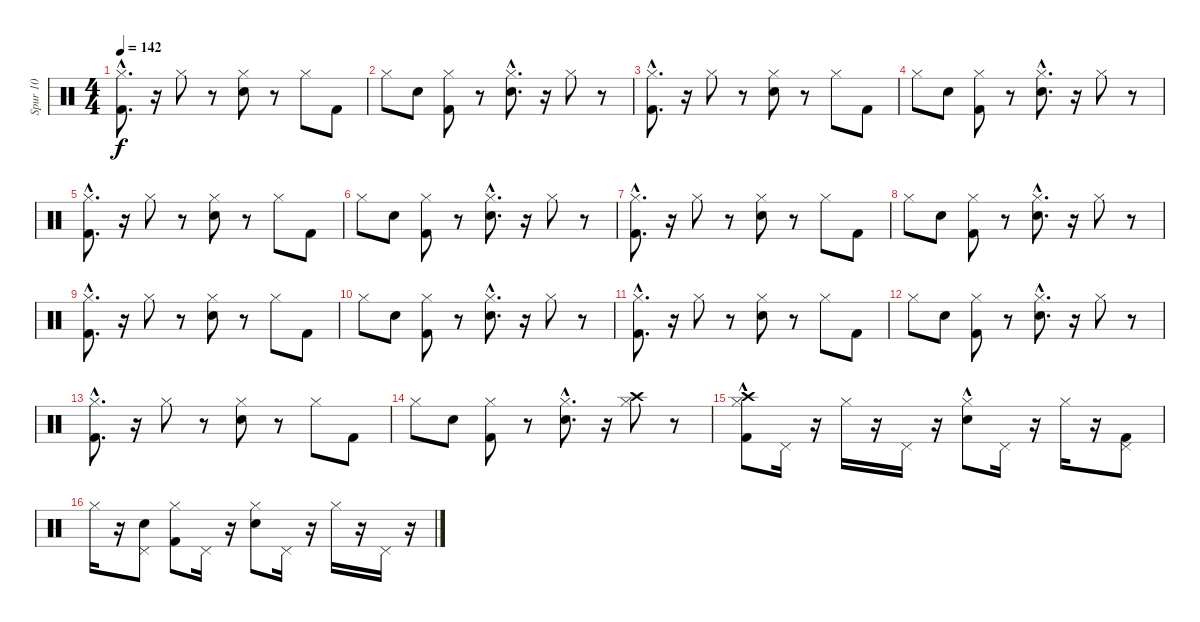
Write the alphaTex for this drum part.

\track ("Spur 10" "Spur 10") {instrument percussion}
\staff {score}
\articulation defaults
\ts (4 4)
\tempo 142
\clef neutral
\ks c
("Kick (hit) 2"{hac} "Hi-Hat (closed)").8{d dy f} r.16 "Hi-Hat (closed)".8 r.8 ("Snare (hit) 2" "Hi-Hat (closed)").8 r.8 "Hi-Hat (closed)".8 "Kick (hit) 2".8 |
"Hi-Hat (closed)".8 "Snare (hit) 2".8 ("Kick (hit) 2" "Hi-Hat (closed)").8 r.8 ("Snare (hit) 2"{hac} "Hi-Hat (closed)").8{d} r.16 "Hi-Hat (closed)".8 r.8 |
("Kick (hit) 2"{hac} "Hi-Hat (closed)").8{d} r.16 "Hi-Hat (closed)".8 r.8 ("Snare (hit) 2" "Hi-Hat (closed)").8 r.8 "Hi-Hat (closed)".8 "Kick (hit) 2".8 |
"Hi-Hat (closed)".8 "Snare (hit) 2".8 ("Kick (hit) 2" "Hi-Hat (closed)").8 r.8 ("Snare (hit) 2"{hac} "Hi-Hat (closed)").8{d} r.16 "Hi-Hat (closed)".8 r.8 |
("Kick (hit) 2"{hac} "Hi-Hat (closed)").8{d} r.16 "Hi-Hat (closed)".8 r.8 ("Snare (hit) 2" "Hi-Hat (closed)").8 r.8 "Hi-Hat (closed)".8 "Kick (hit) 2".8 |
"Hi-Hat (closed)".8 "Snare (hit) 2".8 ("Kick (hit) 2" "Hi-Hat (closed)").8 r.8 ("Snare (hit) 2"{hac} "Hi-Hat (closed)").8{d} r.16 "Hi-Hat (closed)".8 r.8 |
("Kick (hit) 2"{hac} "Hi-Hat (closed)").8{d} r.16 "Hi-Hat (closed)".8 r.8 ("Snare (hit) 2" "Hi-Hat (closed)").8 r.8 "Hi-Hat (closed)".8 "Kick (hit) 2".8 |
"Hi-Hat (closed)".8 "Snare (hit) 2".8 ("Kick (hit) 2" "Hi-Hat (closed)").8 r.8 ("Snare (hit) 2"{hac} "Hi-Hat (closed)").8{d} r.16 "Hi-Hat (closed)".8 r.8 |
("Kick (hit) 2"{hac} "Hi-Hat (closed)").8{d} r.16 "Hi-Hat (closed)".8 r.8 ("Snare (hit) 2" "Hi-Hat (closed)").8 r.8 "Hi-Hat (closed)".8 "Kick (hit) 2".8 |
"Hi-Hat (closed)".8 "Snare (hit) 2".8 ("Kick (hit) 2" "Hi-Hat (closed)").8 r.8 ("Snare (hit) 2"{hac} "Hi-Hat (closed)").8{d} r.16 "Hi-Hat (closed)".8 r.8 |
("Kick (hit) 2"{hac} "Hi-Hat (closed)").8{d} r.16 "Hi-Hat (closed)".8 r.8 ("Snare (hit) 2" "Hi-Hat (closed)").8 r.8 "Hi-Hat (closed)".8 "Kick (hit) 2".8 |
"Hi-Hat (closed)".8 "Snare (hit) 2".8 ("Kick (hit) 2" "Hi-Hat (closed)").8 r.8 ("Snare (hit) 2"{hac} "Hi-Hat (closed)").8{d} r.16 "Hi-Hat (closed)".8 r.8 |
("Kick (hit) 2"{hac} "Hi-Hat (closed)").8{d} r.16 "Hi-Hat (closed)".8 r.8 ("Snare (hit) 2" "Hi-Hat (closed)").8 r.8 "Hi-Hat (closed)".8 "Kick (hit) 2".8 |
"Hi-Hat (closed)".8 "Snare (hit) 2".8 ("Kick (hit) 2" "Hi-Hat (closed)").8 r.8 ("Snare (hit) 2"{hac} "Hi-Hat (closed)").8{d} r.16 ("Hi-Hat (closed)" "Crash high (hit)").8 r.8 |
("Crash high (hit)"{hac} "Kick (hit) 2" "Hi-Hat (closed)").8 "Pedal Hi-Hat (hit)".16 r.16 "Hi-Hat (closed)".16 r.16 "Pedal Hi-Hat (hit)".16 r.16 ("Snare (hit) 2"{hac} "Hi-Hat (closed)").8 "Pedal Hi-Hat (hit)".16 r.16 "Hi-Hat (closed)".16 r.16 ("Kick (hit) 2" "Pedal Hi-Hat (hit)").8 |
"Hi-Hat (closed)".16 r.16 ("Snare (hit) 2" "Pedal Hi-Hat (hit)").8 ("Kick (hit) 2" "Hi-Hat (closed)").8 "Pedal Hi-Hat (hit)".16 r.16 ("Snare (hit) 2" "Hi-Hat (closed)").8 "Pedal Hi-Hat (hit)".16 r.16 "Hi-Hat (closed)".16 r.16 "Pedal Hi-Hat (hit)".16 r.16
